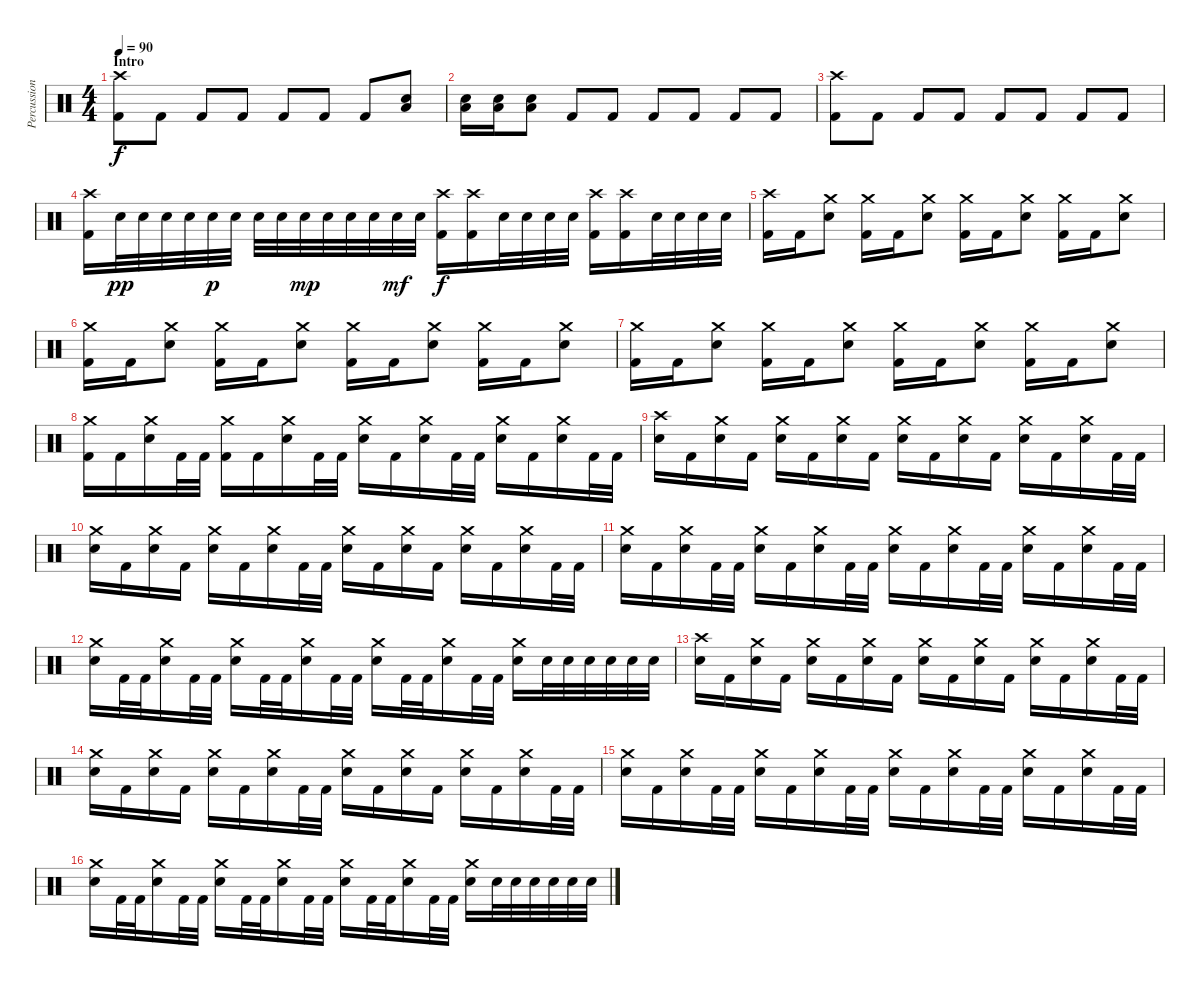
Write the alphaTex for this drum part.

\track ("Percussion" "Percussion") {instrument percussion}
\staff {score}
\articulation defaults
\ts (4 4)
\section ("" "Intro")
\tempo 90
\clef neutral
\ks c
("Kick (hit) 2" "Crash high (hit)").8{dy f} "Kick (hit) 2".8 "Kick (hit) 2".8 "Kick (hit) 2".8 "Kick (hit) 2".8 "Kick (hit) 2".8 "Kick (hit) 2".8 ("Electric Snare (hit)" "Low Tom (hit)").8 |
("Electric Snare (hit)" "Low Tom (hit)").16 ("Electric Snare (hit)" "Low Tom (hit)").16 ("Electric Snare (hit)" "Low Tom (hit)").8 "Kick (hit) 2".8 "Kick (hit) 2".8 "Kick (hit) 2".8 "Kick (hit) 2".8 "Kick (hit) 2".8 "Kick (hit) 2".8 |
("Kick (hit) 2" "Crash high (hit)").8 "Kick (hit) 2".8 "Kick (hit) 2".8 "Kick (hit) 2".8 "Kick (hit) 2".8 "Kick (hit) 2".8 "Kick (hit) 2".8 "Kick (hit) 2".8 |
("Kick (hit) 2" "Crash high (hit)").16 "Electric Snare (hit)".32{dy pp} "Electric Snare (hit)".32 "Electric Snare (hit)".32 "Electric Snare (hit)".32 "Electric Snare (hit)".32{dy p} "Electric Snare (hit)".32 "Electric Snare (hit)".32 "Electric Snare (hit)".32 "Electric Snare (hit)".32{dy mp} "Electric Snare (hit)".32 "Electric Snare (hit)".32 "Electric Snare (hit)".32 "Electric Snare (hit)".32{dy mf} "Electric Snare (hit)".32 ("Kick (hit) 2" "Crash high (hit)").16{dy f} ("Kick (hit) 2" "Crash high (hit)").16 "Electric Snare (hit)".32 "Electric Snare (hit)".32 "Electric Snare (hit)".32 "Electric Snare (hit)".32 ("Kick (hit) 2" "Crash high (hit)").16 ("Kick (hit) 2" "Crash high (hit)").16 "Electric Snare (hit)".32 "Electric Snare (hit)".32 "Electric Snare (hit)".32 "Electric Snare (hit)".32 |
("Kick (hit) 2" "Crash high (hit)").16 "Kick (hit) 2".16 ("Electric Snare (hit)" "Crash medium (hit)").8 ("Kick (hit) 2" "Crash medium (hit)").16 "Kick (hit) 2".16 ("Electric Snare (hit)" "Crash medium (hit)").8 ("Kick (hit) 2" "Crash medium (hit)").16 "Kick (hit) 2".16 ("Electric Snare (hit)" "Crash medium (hit)").8 ("Kick (hit) 2" "Crash medium (hit)").16 "Kick (hit) 2".16 ("Electric Snare (hit)" "Crash medium (hit)").8 |
("Kick (hit) 2" "Crash medium (hit)").16 "Kick (hit) 2".16 ("Electric Snare (hit)" "Crash medium (hit)").8 ("Kick (hit) 2" "Crash medium (hit)").16 "Kick (hit) 2".16 ("Electric Snare (hit)" "Crash medium (hit)").8 ("Kick (hit) 2" "Crash medium (hit)").16 "Kick (hit) 2".16 ("Electric Snare (hit)" "Crash medium (hit)").8 ("Kick (hit) 2" "Crash medium (hit)").16 "Kick (hit) 2".16 ("Electric Snare (hit)" "Crash medium (hit)").8 |
("Kick (hit) 2" "Crash medium (hit)").16 "Kick (hit) 2".16 ("Electric Snare (hit)" "Crash medium (hit)").8 ("Kick (hit) 2" "Crash medium (hit)").16 "Kick (hit) 2".16 ("Electric Snare (hit)" "Crash medium (hit)").8 ("Kick (hit) 2" "Crash medium (hit)").16 "Kick (hit) 2".16 ("Electric Snare (hit)" "Crash medium (hit)").8 ("Kick (hit) 2" "Crash medium (hit)").16 "Kick (hit) 2".16 ("Electric Snare (hit)" "Crash medium (hit)").8 |
("Kick (hit) 2" "Crash medium (hit)").16 "Kick (hit) 2".16 ("Electric Snare (hit)" "Crash medium (hit)").16 "Kick (hit) 2".32 "Kick (hit) 2".32 ("Kick (hit) 2" "Crash medium (hit)").16 "Kick (hit) 2".16 ("Electric Snare (hit)" "Crash medium (hit)").16 "Kick (hit) 2".32 "Kick (hit) 2".32 ("Electric Snare (hit)" "Crash medium (hit)").16 "Kick (hit) 2".16 ("Electric Snare (hit)" "Crash medium (hit)").16 "Kick (hit) 2".32 "Kick (hit) 2".32 ("Electric Snare (hit)" "Crash medium (hit)").16 "Kick (hit) 2".16 ("Electric Snare (hit)" "Crash medium (hit)").16 "Kick (hit) 2".32 "Kick (hit) 2".32 |
("Electric Snare (hit)" "Crash high (hit)").16 "Kick (hit) 2".16 ("Electric Snare (hit)" "Crash medium (hit)").16 "Kick (hit) 2".16 ("Electric Snare (hit)" "Crash medium (hit)").16 "Kick (hit) 2".16 ("Electric Snare (hit)" "Crash medium (hit)").16 "Kick (hit) 2".16 ("Electric Snare (hit)" "Crash medium (hit)").16 "Kick (hit) 2".16 ("Electric Snare (hit)" "Crash medium (hit)").16 "Kick (hit) 2".16 ("Electric Snare (hit)" "Crash medium (hit)").16 "Kick (hit) 2".16 ("Electric Snare (hit)" "Crash medium (hit)").16 "Kick (hit) 2".32 "Kick (hit) 2".32 |
("Electric Snare (hit)" "Crash medium (hit)").16 "Kick (hit) 2".16 ("Electric Snare (hit)" "Crash medium (hit)").16 "Kick (hit) 2".16 ("Electric Snare (hit)" "Crash medium (hit)").16 "Kick (hit) 2".16 ("Electric Snare (hit)" "Crash medium (hit)").16 "Kick (hit) 2".32 "Kick (hit) 2".32 ("Electric Snare (hit)" "Crash medium (hit)").16 "Kick (hit) 2".16 ("Electric Snare (hit)" "Crash medium (hit)").16 "Kick (hit) 2".16 ("Electric Snare (hit)" "Crash medium (hit)").16 "Kick (hit) 2".16 ("Electric Snare (hit)" "Crash medium (hit)").16 "Kick (hit) 2".32 "Kick (hit) 2".32 |
("Electric Snare (hit)" "Crash medium (hit)").16 "Kick (hit) 2".16 ("Electric Snare (hit)" "Crash medium (hit)").16 "Kick (hit) 2".32 "Kick (hit) 2".32 ("Electric Snare (hit)" "Crash medium (hit)").16 "Kick (hit) 2".16 ("Electric Snare (hit)" "Crash medium (hit)").16 "Kick (hit) 2".32 "Kick (hit) 2".32 ("Electric Snare (hit)" "Crash medium (hit)").16 "Kick (hit) 2".16 ("Electric Snare (hit)" "Crash medium (hit)").16 "Kick (hit) 2".32 "Kick (hit) 2".32 ("Electric Snare (hit)" "Crash medium (hit)").16 "Kick (hit) 2".16 ("Electric Snare (hit)" "Crash medium (hit)").16 "Kick (hit) 2".32 "Kick (hit) 2".32 |
("Electric Snare (hit)" "Crash medium (hit)").16 "Kick (hit) 2".32 "Kick (hit) 2".32 ("Electric Snare (hit)" "Crash medium (hit)").16 "Kick (hit) 2".32 "Kick (hit) 2".32 ("Electric Snare (hit)" "Crash medium (hit)").16 "Kick (hit) 2".32 "Kick (hit) 2".32 ("Electric Snare (hit)" "Crash medium (hit)").16 "Kick (hit) 2".32 "Kick (hit) 2".32 ("Electric Snare (hit)" "Crash medium (hit)").16 "Kick (hit) 2".32 "Kick (hit) 2".32 ("Electric Snare (hit)" "Crash medium (hit)").16 "Kick (hit) 2".32 "Kick (hit) 2".32 ("Electric Snare (hit)" "Crash medium (hit)").16 "Electric Snare (hit)".32 "Electric Snare (hit)".32 "Electric Snare (hit)".32 "Electric Snare (hit)".32 "Electric Snare (hit)".32 "Electric Snare (hit)".32 |
("Electric Snare (hit)" "Crash high (hit)").16 "Kick (hit) 2".16 ("Electric Snare (hit)" "Crash medium (hit)").16 "Kick (hit) 2".16 ("Electric Snare (hit)" "Crash medium (hit)").16 "Kick (hit) 2".16 ("Electric Snare (hit)" "Crash medium (hit)").16 "Kick (hit) 2".16 ("Electric Snare (hit)" "Crash medium (hit)").16 "Kick (hit) 2".16 ("Electric Snare (hit)" "Crash medium (hit)").16 "Kick (hit) 2".16 ("Electric Snare (hit)" "Crash medium (hit)").16 "Kick (hit) 2".16 ("Electric Snare (hit)" "Crash medium (hit)").16 "Kick (hit) 2".32 "Kick (hit) 2".32 |
("Electric Snare (hit)" "Crash medium (hit)").16 "Kick (hit) 2".16 ("Electric Snare (hit)" "Crash medium (hit)").16 "Kick (hit) 2".16 ("Electric Snare (hit)" "Crash medium (hit)").16 "Kick (hit) 2".16 ("Electric Snare (hit)" "Crash medium (hit)").16 "Kick (hit) 2".32 "Kick (hit) 2".32 ("Electric Snare (hit)" "Crash medium (hit)").16 "Kick (hit) 2".16 ("Electric Snare (hit)" "Crash medium (hit)").16 "Kick (hit) 2".16 ("Electric Snare (hit)" "Crash medium (hit)").16 "Kick (hit) 2".16 ("Electric Snare (hit)" "Crash medium (hit)").16 "Kick (hit) 2".32 "Kick (hit) 2".32 |
("Electric Snare (hit)" "Crash medium (hit)").16 "Kick (hit) 2".16 ("Electric Snare (hit)" "Crash medium (hit)").16 "Kick (hit) 2".32 "Kick (hit) 2".32 ("Electric Snare (hit)" "Crash medium (hit)").16 "Kick (hit) 2".16 ("Electric Snare (hit)" "Crash medium (hit)").16 "Kick (hit) 2".32 "Kick (hit) 2".32 ("Electric Snare (hit)" "Crash medium (hit)").16 "Kick (hit) 2".16 ("Electric Snare (hit)" "Crash medium (hit)").16 "Kick (hit) 2".32 "Kick (hit) 2".32 ("Electric Snare (hit)" "Crash medium (hit)").16 "Kick (hit) 2".16 ("Electric Snare (hit)" "Crash medium (hit)").16 "Kick (hit) 2".32 "Kick (hit) 2".32 |
("Electric Snare (hit)" "Crash medium (hit)").16 "Kick (hit) 2".32 "Kick (hit) 2".32 ("Electric Snare (hit)" "Crash medium (hit)").16 "Kick (hit) 2".32 "Kick (hit) 2".32 ("Electric Snare (hit)" "Crash medium (hit)").16 "Kick (hit) 2".32 "Kick (hit) 2".32 ("Electric Snare (hit)" "Crash medium (hit)").16 "Kick (hit) 2".32 "Kick (hit) 2".32 ("Electric Snare (hit)" "Crash medium (hit)").16 "Kick (hit) 2".32 "Kick (hit) 2".32 ("Electric Snare (hit)" "Crash medium (hit)").16 "Kick (hit) 2".32 "Kick (hit) 2".32 ("Electric Snare (hit)" "Crash medium (hit)").16 "Electric Snare (hit)".32 "Electric Snare (hit)".32 "Electric Snare (hit)".32 "Electric Snare (hit)".32 "Electric Snare (hit)".32 "Electric Snare (hit)".32
